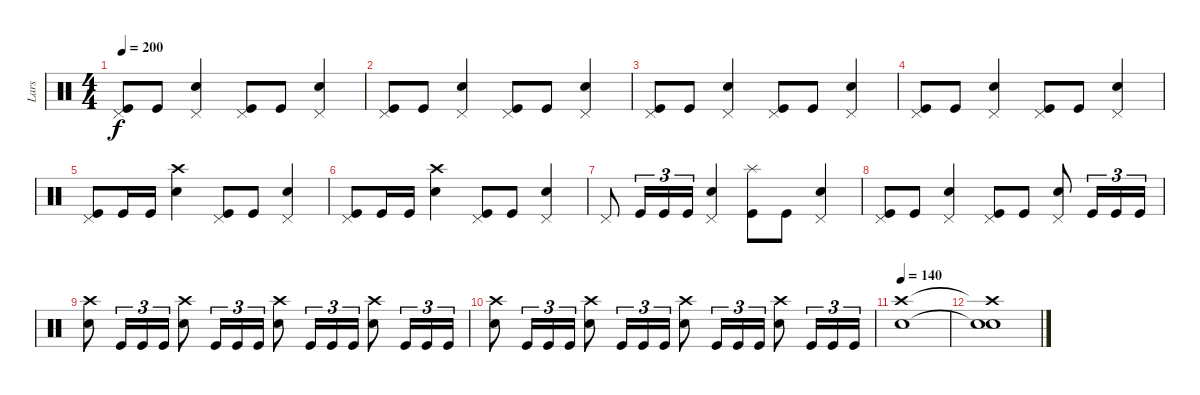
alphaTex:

\track ("Lars" "Lars") {instrument percussion}
\staff {score}
\articulation defaults
\ts (4 4)
\tempo 200
\clef neutral
\ks c
("Pedal Hi-Hat (hit)" "Kick (hit)").8{dy f} "Kick (hit)".8 ("Pedal Hi-Hat (hit)" "Snare (hit) 2").4 ("Pedal Hi-Hat (hit)" "Kick (hit)").8 "Kick (hit)".8 ("Pedal Hi-Hat (hit)" "Snare (hit) 2").4 |
("Pedal Hi-Hat (hit)" "Kick (hit)").8 "Kick (hit)".8 ("Pedal Hi-Hat (hit)" "Snare (hit) 2").4 ("Pedal Hi-Hat (hit)" "Kick (hit)").8 "Kick (hit)".8 ("Pedal Hi-Hat (hit)" "Snare (hit) 2").4 |
("Pedal Hi-Hat (hit)" "Kick (hit)").8 "Kick (hit)".8 ("Pedal Hi-Hat (hit)" "Snare (hit) 2").4 ("Pedal Hi-Hat (hit)" "Kick (hit)").8 "Kick (hit)".8 ("Pedal Hi-Hat (hit)" "Snare (hit) 2").4 |
("Pedal Hi-Hat (hit)" "Kick (hit)").8 "Kick (hit)".8 ("Pedal Hi-Hat (hit)" "Snare (hit) 2").4 ("Pedal Hi-Hat (hit)" "Kick (hit)").8 "Kick (hit)".8 ("Pedal Hi-Hat (hit)" "Snare (hit) 2").4 |
("Pedal Hi-Hat (hit)" "Kick (hit)").8 "Kick (hit)".16 "Kick (hit)".16 ("Crash high (hit)" "Snare (hit) 2").4 ("Pedal Hi-Hat (hit)" "Kick (hit)").8 "Kick (hit)".8 ("Pedal Hi-Hat (hit)" "Snare (hit) 2").4 |
("Pedal Hi-Hat (hit)" "Kick (hit)").8 "Kick (hit)".16 "Kick (hit)".16 ("Crash high (hit)" "Snare (hit) 2").4 ("Pedal Hi-Hat (hit)" "Kick (hit)").8 "Kick (hit)".8 ("Pedal Hi-Hat (hit)" "Snare (hit) 2").4 |
"Pedal Hi-Hat (hit)".8 "Kick (hit)".16{tu (3 2)} "Kick (hit)".16{tu (3 2)} "Kick (hit)".16{tu (3 2)} ("Pedal Hi-Hat (hit)" "Snare (hit) 2").4 ("Splash (hit)" "Kick (hit)").8 "Kick (hit)".8 ("Pedal Hi-Hat (hit)" "Snare (hit) 2").4 |
("Pedal Hi-Hat (hit)" "Kick (hit)").8 "Kick (hit)".8 ("Pedal Hi-Hat (hit)" "Snare (hit) 2").4 ("Pedal Hi-Hat (hit)" "Kick (hit)").8 "Kick (hit)".8 ("Pedal Hi-Hat (hit)" "Snare (hit) 2").8 "Kick (hit)".16{tu (3 2)} "Kick (hit)".16{tu (3 2)} "Kick (hit)".16{tu (3 2)} |
("Crash high (hit)" "Snare (hit) 2").8 "Kick (hit)".16{tu (3 2)} "Kick (hit)".16{tu (3 2)} "Kick (hit)".16{tu (3 2)} ("Crash high (hit)" "Snare (hit) 2").8 "Kick (hit)".16{tu (3 2)} "Kick (hit)".16{tu (3 2)} "Kick (hit)".16{tu (3 2)} ("Crash high (hit)" "Snare (hit) 2").8 "Kick (hit)".16{tu (3 2)} "Kick (hit)".16{tu (3 2)} "Kick (hit)".16{tu (3 2)} ("Crash high (hit)" "Snare (hit) 2").8 "Kick (hit)".16{tu (3 2)} "Kick (hit)".16{tu (3 2)} "Kick (hit)".16{tu (3 2)} |
("Crash high (hit)" "Snare (hit) 2").8 "Kick (hit)".16{tu (3 2)} "Kick (hit)".16{tu (3 2)} "Kick (hit)".16{tu (3 2)} ("Crash high (hit)" "Snare (hit) 2").8 "Kick (hit)".16{tu (3 2)} "Kick (hit)".16{tu (3 2)} "Kick (hit)".16{tu (3 2)} ("Crash high (hit)" "Snare (hit) 2").8 "Kick (hit)".16{tu (3 2)} "Kick (hit)".16{tu (3 2)} "Kick (hit)".16{tu (3 2)} ("Crash high (hit)" "Snare (hit) 2").8 "Kick (hit)".16{tu (3 2)} "Kick (hit)".16{tu (3 2)} "Kick (hit)".16{tu (3 2)} |
\tempo 140
("Crash high (hit)" "Snare (hit) 2").1 |
("Crash high (hit)"{t} "Snare (hit)"{t} "Snare (hit) 2").1
